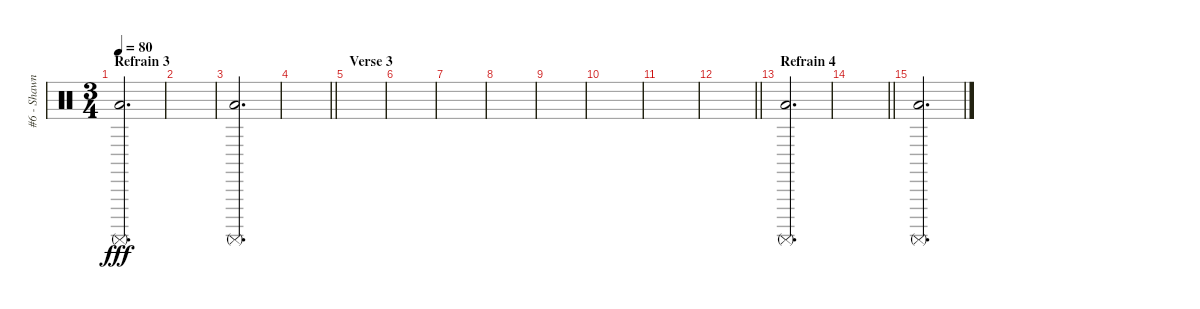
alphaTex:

\track ("#6 - Shawn Crahan" "#6 - Shawn") {instrument percussion}
\staff {score}
\articulation defaults
\ts (3 4)
\section ("" "Refrain 3")
\tempo 80
\clef neutral
\ks c
("Low Floor Tom (hit)" "Surdo (mute)").2{d dy fff volume 16} |
|
("Low Floor Tom (hit)" "Surdo (mute)").2{d} |
\barLineRight lightlight
|
\section ("" "Verse 3")
|
|
|
|
|
|
|
\barLineRight lightlight
|
\section ("" "Refrain 4")
("Low Floor Tom (hit)" "Surdo (mute)").2{d volume 16} |
\barLineRight lightlight
|
("Low Floor Tom (hit)" "Surdo (mute)").2{d}
